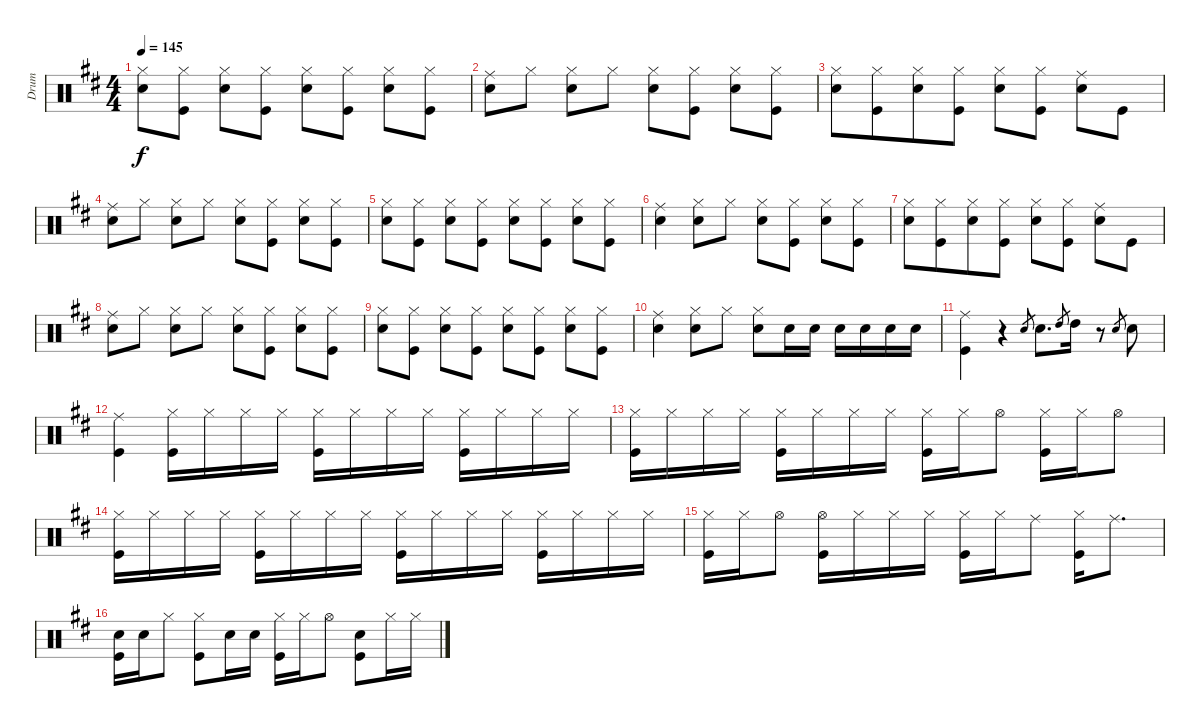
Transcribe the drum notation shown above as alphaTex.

\track ("     Drum" "     Drum") {instrument percussion}
\staff {score}
\articulation defaults
\ts (4 4)
\tempo 145
\clef neutral
\ks d
("Hi-Hat (closed)" "Snare (hit) 2").8{dy f} ("Hi-Hat (closed)" "Kick (hit)").8 ("Hi-Hat (closed)" "Snare (hit) 2").8 ("Hi-Hat (closed)" "Kick (hit)").8 ("Hi-Hat (closed)" "Snare (hit) 2").8 ("Hi-Hat (closed)" "Kick (hit)").8 ("Hi-Hat (closed)" "Snare (hit) 2").8 ("Hi-Hat (closed)" "Kick (hit)").8 |
("Ride (middle)" "Snare (hit) 2").8 "Hi-Hat (closed)".8 ("Hi-Hat (closed)" "Snare (hit) 2").8 "Hi-Hat (closed)".8 ("Hi-Hat (closed)" "Snare (hit) 2").8 ("Hi-Hat (closed)" "Kick (hit)").8 ("Hi-Hat (closed)" "Snare (hit) 2").8 ("Hi-Hat (closed)" "Kick (hit)").8 |
("Hi-Hat (closed)" "Snare (hit) 2").8 ("Hi-Hat (closed)" "Kick (hit)").8{beam merge} ("Hi-Hat (closed)" "Snare (hit) 2").8 ("Hi-Hat (closed)" "Kick (hit)").8 ("Hi-Hat (closed)" "Snare (hit) 2").8{beam merge} ("Hi-Hat (closed)" "Kick (hit)").8 ("Ride (middle)" "Snare (hit) 2").8 "Kick (hit)".8 |
("Ride (middle)" "Snare (hit) 2").8 "Hi-Hat (closed)".8 ("Hi-Hat (closed)" "Snare (hit) 2").8 "Hi-Hat (closed)".8 ("Hi-Hat (closed)" "Snare (hit) 2").8 ("Hi-Hat (closed)" "Kick (hit)").8 ("Hi-Hat (closed)" "Snare (hit) 2").8 ("Hi-Hat (closed)" "Kick (hit)").8 |
("Hi-Hat (closed)" "Snare (hit) 2").8 ("Hi-Hat (closed)" "Kick (hit)").8 ("Hi-Hat (closed)" "Snare (hit) 2").8 ("Hi-Hat (closed)" "Kick (hit)").8 ("Hi-Hat (closed)" "Snare (hit) 2").8 ("Hi-Hat (closed)" "Kick (hit)").8 ("Hi-Hat (closed)" "Snare (hit) 2").8 ("Hi-Hat (closed)" "Kick (hit)").8 |
("Ride (middle)" "Snare (hit) 2").4 ("Hi-Hat (closed)" "Snare (hit) 2").8 "Hi-Hat (closed)".8 ("Hi-Hat (closed)" "Snare (hit) 2").8 ("Hi-Hat (closed)" "Kick (hit)").8 ("Hi-Hat (closed)" "Snare (hit) 2").8 ("Hi-Hat (closed)" "Kick (hit)").8 |
("Hi-Hat (closed)" "Snare (hit) 2").8 ("Hi-Hat (closed)" "Kick (hit)").8{beam merge} ("Hi-Hat (closed)" "Snare (hit) 2").8 ("Hi-Hat (closed)" "Kick (hit)").8 ("Hi-Hat (closed)" "Snare (hit) 2").8{beam merge} ("Hi-Hat (closed)" "Kick (hit)").8 ("Ride (middle)" "Snare (hit) 2").8 "Kick (hit)".8 |
("Ride (middle)" "Snare (hit) 2").8 "Hi-Hat (closed)".8 ("Hi-Hat (closed)" "Snare (hit) 2").8 "Hi-Hat (closed)".8 ("Hi-Hat (closed)" "Snare (hit) 2").8 ("Hi-Hat (closed)" "Kick (hit)").8 ("Hi-Hat (closed)" "Snare (hit) 2").8 ("Hi-Hat (closed)" "Kick (hit)").8 |
("Hi-Hat (closed)" "Snare (hit) 2").8 ("Hi-Hat (closed)" "Kick (hit)").8 ("Hi-Hat (closed)" "Snare (hit) 2").8 ("Hi-Hat (closed)" "Kick (hit)").8 ("Hi-Hat (closed)" "Snare (hit) 2").8 ("Hi-Hat (closed)" "Kick (hit)").8 ("Hi-Hat (closed)" "Snare (hit) 2").8 ("Hi-Hat (closed)" "Kick (hit)").8 |
("Ride (middle)" "Snare (hit) 2").4 ("Hi-Hat (closed)" "Snare (hit) 2").8 "Hi-Hat (closed)".8 ("Hi-Hat (closed)" "Snare (hit) 2").8 "Snare (hit) 2".16 "Snare (hit) 2".16 "Snare (hit) 2".16 "Snare (hit) 2".16 "Snare (hit) 2".16 "Snare (hit) 2".16 |
("Ride (middle)" "Kick (hit)").4 r.4 "Snare (hit) 2"{h}.8{gr} "Snare (hit) 2".8{d} "High Tom (hit)"{h}.8{gr} "High Tom (hit)".16 r.8 "Snare (hit) 2"{h}.8{gr} "Snare (hit) 2".8 |
("Ride (middle)" "Kick (hit)").4 ("Hi-Hat (closed)" "Kick (hit)").16 "Hi-Hat (closed)".16 "Hi-Hat (closed)".16 "Hi-Hat (closed)".16 ("Hi-Hat (closed)" "Kick (hit)").16 "Hi-Hat (closed)".16 "Hi-Hat (closed)".16 "Hi-Hat (closed)".16 ("Hi-Hat (closed)" "Kick (hit)").16 "Hi-Hat (closed)".16 "Hi-Hat (closed)".16 "Hi-Hat (closed)".16 |
("Hi-Hat (closed)" "Kick (hit)").16 "Hi-Hat (closed)".16 "Hi-Hat (closed)".16 "Hi-Hat (closed)".16 ("Hi-Hat (closed)" "Kick (hit)").16 "Hi-Hat (closed)".16 "Hi-Hat (closed)".16 "Hi-Hat (closed)".16 ("Hi-Hat (closed)" "Kick (hit)").16 "Hi-Hat (closed)".16 "Hi-Hat (open)".8 ("Hi-Hat (closed)" "Kick (hit)").16 "Hi-Hat (closed)".16 "Hi-Hat (open)".8 |
("Hi-Hat (closed)" "Kick (hit)").16 "Hi-Hat (closed)".16 "Hi-Hat (closed)".16 "Hi-Hat (closed)".16 ("Hi-Hat (closed)" "Kick (hit)").16 "Hi-Hat (closed)".16 "Hi-Hat (closed)".16 "Hi-Hat (closed)".16 ("Hi-Hat (closed)" "Kick (hit)").16 "Hi-Hat (closed)".16 "Hi-Hat (closed)".16 "Hi-Hat (closed)".16 ("Hi-Hat (closed)" "Kick (hit)").16 "Hi-Hat (closed)".16 "Hi-Hat (closed)".16 "Hi-Hat (closed)".16 |
("Hi-Hat (closed)" "Kick (hit)").16 "Hi-Hat (closed)".16 "Hi-Hat (open)".8 ("Hi-Hat (open)" "Kick (hit)").16 "Hi-Hat (closed)".16 "Hi-Hat (closed)".16 "Hi-Hat (closed)".16 ("Hi-Hat (closed)" "Kick (hit)").16 "Hi-Hat (closed)".16 "Ride (middle)".8 ("Hi-Hat (closed)" "Kick (hit)").16 "Ride (middle)".8{d} |
("Snare (hit) 2" "Kick (hit)").16 "Snare (hit) 2".16 "Hi-Hat (closed)".8 ("Hi-Hat (closed)" "Kick (hit)").8 "Snare (hit) 2".16 "Snare (hit) 2".16 ("Hi-Hat (closed)" "Kick (hit)").16 "Hi-Hat (closed)".16 "Hi-Hat (open)".8 ("Snare (hit) 2" "Kick (hit)").8 "Hi-Hat (closed)".16 "Hi-Hat (closed)".16
